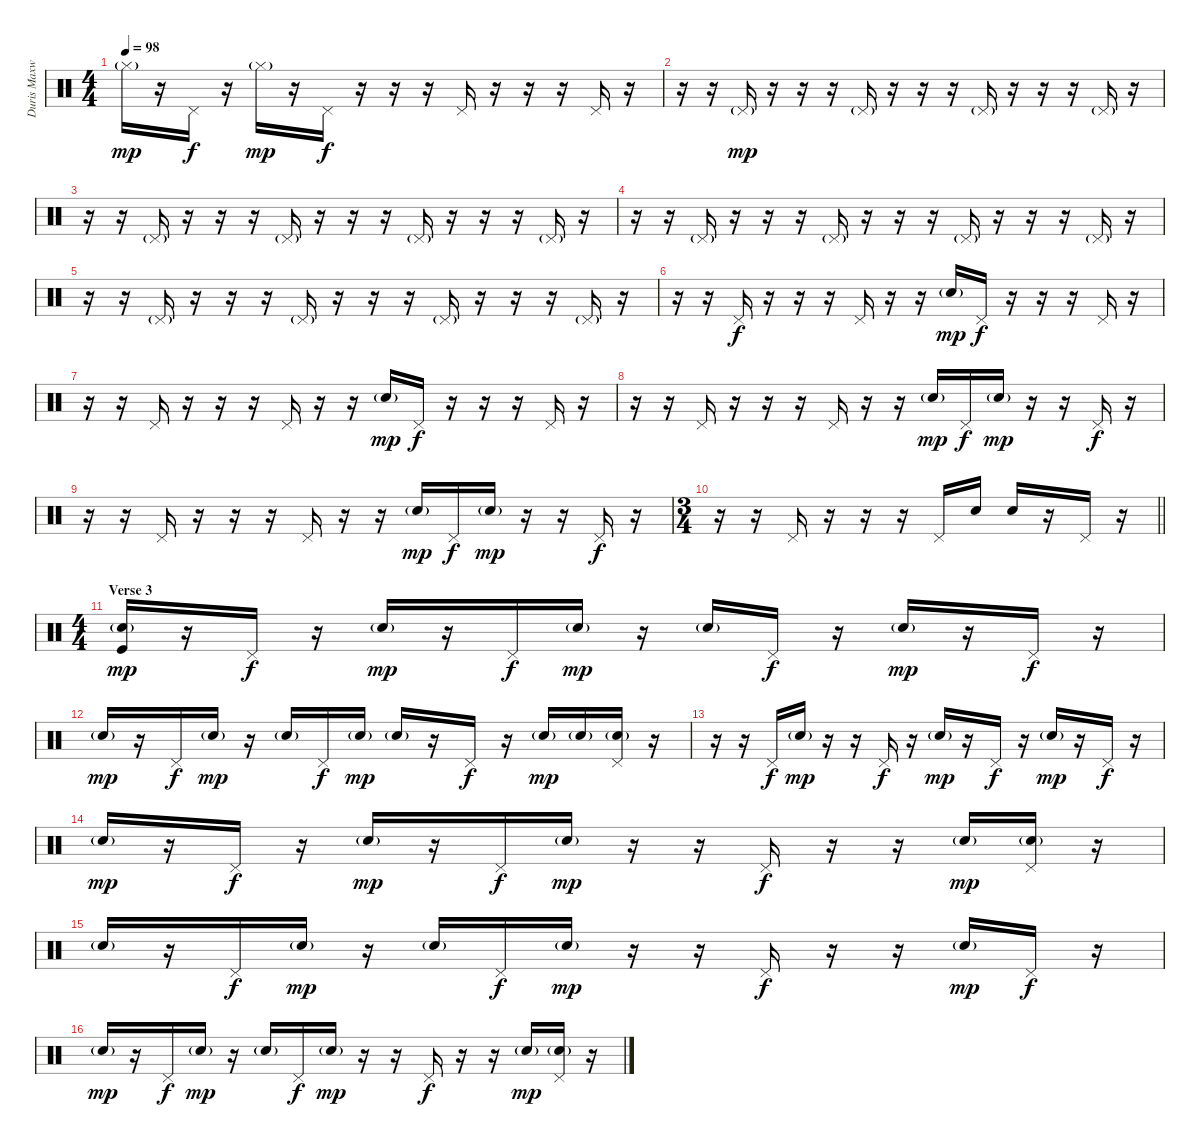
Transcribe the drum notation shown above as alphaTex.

\track ("Duris Maxwell" "Duris Maxw") {instrument percussion}
\staff {score}
\articulation defaults
\ts (4 4)
\tempo 98
\clef neutral
\ks c "Hi-Hat (closed)"{g}.16{dy mp}
r.16 "Pedal Hi-Hat (hit)".16{dy f} r.16 "Hi-Hat (closed)"{g}.16{dy mp} r.16 "Pedal Hi-Hat (hit)".16{dy f} r.16 r.16 r.16 "Pedal Hi-Hat (hit)".16 r.16 r.16 r.16 "Pedal Hi-Hat (hit)".16 r.16 |
r.16 r.16 "Pedal Hi-Hat (hit)"{g}.16{dy mp} r.16 r.16 r.16 "Pedal Hi-Hat (hit)"{g}.16 r.16 r.16 r.16 "Pedal Hi-Hat (hit)"{g}.16 r.16 r.16 r.16 "Pedal Hi-Hat (hit)"{g}.16 r.16 |
r.16 r.16 "Pedal Hi-Hat (hit)"{g}.16 r.16 r.16 r.16 "Pedal Hi-Hat (hit)"{g}.16 r.16 r.16 r.16 "Pedal Hi-Hat (hit)"{g}.16 r.16 r.16 r.16 "Pedal Hi-Hat (hit)"{g}.16 r.16 |
r.16 r.16 "Pedal Hi-Hat (hit)"{g}.16 r.16 r.16 r.16 "Pedal Hi-Hat (hit)"{g}.16 r.16 r.16 r.16 "Pedal Hi-Hat (hit)"{g}.16 r.16 r.16 r.16 "Pedal Hi-Hat (hit)"{g}.16 r.16 |
r.16 r.16 "Pedal Hi-Hat (hit)"{g}.16 r.16 r.16 r.16 "Pedal Hi-Hat (hit)"{g}.16 r.16 r.16 r.16 "Pedal Hi-Hat (hit)"{g}.16 r.16 r.16 r.16 "Pedal Hi-Hat (hit)"{g}.16 r.16 |
r.16 r.16 "Pedal Hi-Hat (hit)".16{dy f} r.16 r.16 r.16 "Pedal Hi-Hat (hit)".16 r.16 r.16 "Snare (hit) 2"{g}.16{dy mp} "Pedal Hi-Hat (hit)".16{dy f} r.16 r.16 r.16 "Pedal Hi-Hat (hit)".16 r.16 |
r.16 r.16 "Pedal Hi-Hat (hit)".16 r.16 r.16 r.16 "Pedal Hi-Hat (hit)".16 r.16 r.16 "Snare (hit) 2"{g}.16{dy mp} "Pedal Hi-Hat (hit)".16{dy f} r.16 r.16 r.16 "Pedal Hi-Hat (hit)".16 r.16 |
r.16 r.16 "Pedal Hi-Hat (hit)".16 r.16 r.16 r.16 "Pedal Hi-Hat (hit)".16 r.16 r.16 "Snare (hit) 2"{g}.16{dy mp} "Pedal Hi-Hat (hit)".16{dy f} "Snare (hit) 2"{g}.16{dy mp} r.16 r.16 "Pedal Hi-Hat (hit)".16{dy f} r.16 |
r.16 r.16 "Pedal Hi-Hat (hit)".16 r.16 r.16 r.16 "Pedal Hi-Hat (hit)".16 r.16 r.16 "Snare (hit) 2"{g}.16{dy mp} "Pedal Hi-Hat (hit)".16{dy f} "Snare (hit) 2"{g}.16{dy mp} r.16 r.16 "Pedal Hi-Hat (hit)".16{dy f} r.16 |
\ts (3 4)
\barLineRight lightlight
r.16 r.16 "Pedal Hi-Hat (hit)".16 r.16 r.16 r.16 "Pedal Hi-Hat (hit)".16 "Snare (hit) 2".16 "Snare (hit) 2".16 r.16 "Pedal Hi-Hat (hit)".16 r.16 |
\ts (4 4)
\section ("" "Verse 3")
("Snare (hit) 2"{g} "Kick (hit)").16{dy mp} r.16 "Pedal Hi-Hat (hit)".16{dy f} r.16 "Snare (hit) 2"{g}.16{dy mp} r.16 "Pedal Hi-Hat (hit)".16{dy f} "Snare (hit) 2"{g}.16{dy mp} r.16 "Snare (hit) 2"{g}.16 "Pedal Hi-Hat (hit)".16{dy f} r.16 "Snare (hit) 2"{g}.16{dy mp} r.16 "Pedal Hi-Hat (hit)".16{dy f} r.16 |
"Snare (hit) 2"{g}.16{dy mp} r.16 "Pedal Hi-Hat (hit)".16{dy f} "Snare (hit) 2"{g}.16{dy mp} r.16 "Snare (hit) 2"{g}.16 "Pedal Hi-Hat (hit)".16{dy f} "Snare (hit) 2"{g}.16{dy mp} "Snare (hit) 2"{g}.16 r.16 "Pedal Hi-Hat (hit)".16{dy f} r.16 "Snare (hit) 2"{g}.16{dy mp} "Snare (hit) 2"{g}.16 ("Pedal Hi-Hat (hit)" "Snare (hit) 2"{g}).16 r.16 |
r.16 r.16 "Pedal Hi-Hat (hit)".16{dy f} "Snare (hit) 2"{g}.16{dy mp} r.16 r.16 "Pedal Hi-Hat (hit)".16{dy f} r.16 "Snare (hit) 2"{g}.16{dy mp} r.16 "Pedal Hi-Hat (hit)".16{dy f} r.16 "Snare (hit) 2"{g}.16{dy mp} r.16 "Pedal Hi-Hat (hit)".16{dy f} r.16 |
"Snare (hit) 2"{g}.16{dy mp} r.16 "Pedal Hi-Hat (hit)".16{dy f} r.16 "Snare (hit) 2"{g}.16{dy mp} r.16 "Pedal Hi-Hat (hit)".16{dy f} "Snare (hit) 2"{g}.16{dy mp} r.16 r.16 "Pedal Hi-Hat (hit)".16{dy f} r.16 r.16 "Snare (hit) 2"{g}.16{dy mp} ("Pedal Hi-Hat (hit)" "Snare (hit) 2"{g}).16 r.16 |
"Snare (hit) 2"{g}.16 r.16 "Pedal Hi-Hat (hit)".16{dy f} "Snare (hit) 2"{g}.16{dy mp} r.16 "Snare (hit) 2"{g}.16 "Pedal Hi-Hat (hit)".16{dy f} "Snare (hit) 2"{g}.16{dy mp} r.16 r.16 "Pedal Hi-Hat (hit)".16{dy f} r.16 r.16 "Snare (hit) 2"{g}.16{dy mp} "Pedal Hi-Hat (hit)".16{dy f} r.16 |
"Snare (hit) 2"{g}.16{dy mp} r.16 "Pedal Hi-Hat (hit)".16{dy f} "Snare (hit) 2"{g}.16{dy mp} r.16 "Snare (hit) 2"{g}.16 "Pedal Hi-Hat (hit)".16{dy f} "Snare (hit) 2"{g}.16{dy mp} r.16 r.16 "Pedal Hi-Hat (hit)".16{dy f} r.16 r.16 "Snare (hit) 2"{g}.16{dy mp} ("Pedal Hi-Hat (hit)" "Snare (hit) 2"{g}).16 r.16
